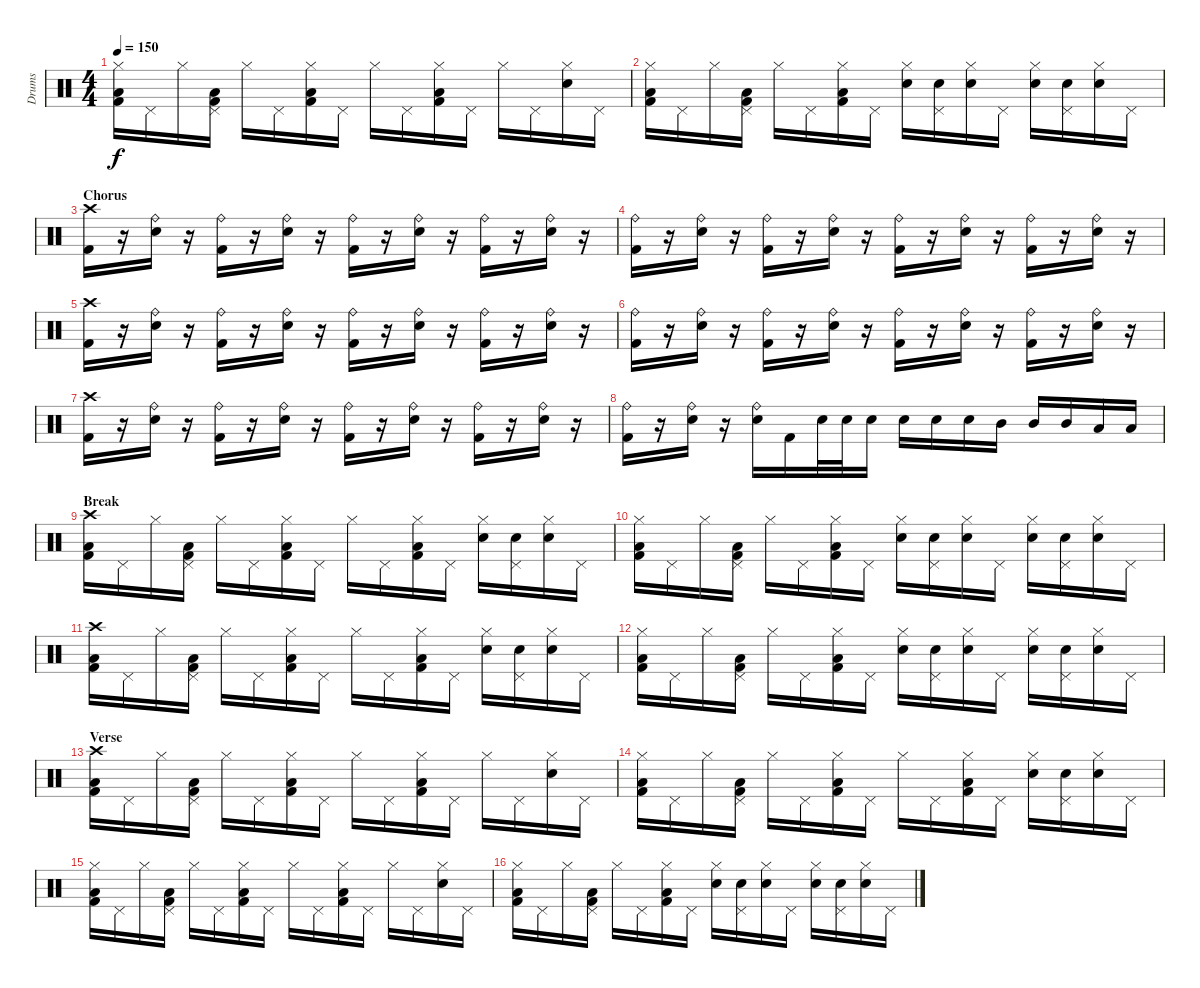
\track ("Drums" "Drums") {instrument percussion}
\staff {score}
\articulation defaults
\ts (4 4)
\tempo 150
\clef neutral
\ks c
("Hi-Hat (closed)" "Low Floor Tom (hit)" "Kick (hit) 2").16{dy f} "Pedal Hi-Hat (hit)".16 "Hi-Hat (closed)".16 ("Pedal Hi-Hat (hit)" "Low Floor Tom (hit)" "Kick (hit) 2").16 "Hi-Hat (closed)".16 "Pedal Hi-Hat (hit)".16 ("Hi-Hat (closed)" "Low Floor Tom (hit)" "Kick (hit) 2").16 "Pedal Hi-Hat (hit)".16 "Hi-Hat (closed)".16 "Pedal Hi-Hat (hit)".16 ("Hi-Hat (closed)" "Low Floor Tom (hit)" "Kick (hit) 2").16 "Pedal Hi-Hat (hit)".16 "Hi-Hat (closed)".16 "Pedal Hi-Hat (hit)".16 ("Hi-Hat (closed)" "Electric Snare (hit)").16 "Pedal Hi-Hat (hit)".16 |
("Hi-Hat (closed)" "Low Floor Tom (hit)" "Kick (hit) 2").16 "Pedal Hi-Hat (hit)".16 "Hi-Hat (closed)".16 ("Pedal Hi-Hat (hit)" "Low Floor Tom (hit)" "Kick (hit) 2").16 "Hi-Hat (closed)".16 "Pedal Hi-Hat (hit)".16 ("Hi-Hat (closed)" "Low Floor Tom (hit)" "Kick (hit) 2").16 "Pedal Hi-Hat (hit)".16 ("Hi-Hat (closed)" "Electric Snare (hit)").16 ("Pedal Hi-Hat (hit)" "Electric Snare (hit)").16 ("Hi-Hat (closed)" "Electric Snare (hit)").16 "Pedal Hi-Hat (hit)".16 ("Hi-Hat (closed)" "Electric Snare (hit)").16 ("Pedal Hi-Hat (hit)" "Electric Snare (hit)").16 ("Hi-Hat (closed)" "Electric Snare (hit)").16 "Pedal Hi-Hat (hit)".16 |
\section ("" "Chorus")
("Crash high (hit)" "Kick (hit) 2").16 r.16 ("Ride (bell)" "Electric Snare (hit)").16 r.16 ("Ride (bell)" "Kick (hit) 2").16 r.16 ("Ride (bell)" "Electric Snare (hit)").16 r.16 ("Ride (bell)" "Kick (hit) 2").16 r.16 ("Ride (bell)" "Electric Snare (hit)").16 r.16 ("Ride (bell)" "Kick (hit) 2").16 r.16 ("Ride (bell)" "Electric Snare (hit)").16 r.16 |
("Ride (bell)" "Kick (hit) 2").16 r.16 ("Ride (bell)" "Electric Snare (hit)").16 r.16 ("Ride (bell)" "Kick (hit) 2").16 r.16 ("Ride (bell)" "Electric Snare (hit)").16 r.16 ("Ride (bell)" "Kick (hit) 2").16 r.16 ("Ride (bell)" "Electric Snare (hit)").16 r.16 ("Ride (bell)" "Kick (hit) 2").16 r.16 ("Ride (bell)" "Electric Snare (hit)").16 r.16 |
("Crash high (hit)" "Kick (hit) 2").16 r.16 ("Ride (bell)" "Electric Snare (hit)").16 r.16 ("Ride (bell)" "Kick (hit) 2").16 r.16 ("Ride (bell)" "Electric Snare (hit)").16 r.16 ("Ride (bell)" "Kick (hit) 2").16 r.16 ("Ride (bell)" "Electric Snare (hit)").16 r.16 ("Ride (bell)" "Kick (hit) 2").16 r.16 ("Ride (bell)" "Electric Snare (hit)").16 r.16 |
("Ride (bell)" "Kick (hit) 2").16 r.16 ("Ride (bell)" "Electric Snare (hit)").16 r.16 ("Ride (bell)" "Kick (hit) 2").16 r.16 ("Ride (bell)" "Electric Snare (hit)").16 r.16 ("Ride (bell)" "Kick (hit) 2").16 r.16 ("Ride (bell)" "Electric Snare (hit)").16 r.16 ("Ride (bell)" "Kick (hit) 2").16 r.16 ("Ride (bell)" "Electric Snare (hit)").16 r.16 |
("Crash high (hit)" "Kick (hit) 2").16 r.16 ("Ride (bell)" "Electric Snare (hit)").16 r.16 ("Ride (bell)" "Kick (hit) 2").16 r.16 ("Ride (bell)" "Electric Snare (hit)").16 r.16 ("Ride (bell)" "Kick (hit) 2").16 r.16 ("Ride (bell)" "Electric Snare (hit)").16 r.16 ("Ride (bell)" "Kick (hit) 2").16 r.16 ("Ride (bell)" "Electric Snare (hit)").16 r.16 |
("Ride (bell)" "Kick (hit) 2").16 r.16 ("Ride (bell)" "Electric Snare (hit)").16 r.16 ("Ride (bell)" "Electric Snare (hit)").16 "Kick (hit) 2".16 "Electric Snare (hit)".32 "Electric Snare (hit)".32 "Electric Snare (hit)".16 "Electric Snare (hit)".16 "Electric Snare (hit)".16 "Electric Snare (hit)".16 "Mid Tom (hit)".16 "Mid Tom (hit)".16 "Mid Tom (hit)".16 "Low Tom (hit)".16 "Low Tom (hit)".16 |
\section ("" "Break")
("Crash high (hit)" "Low Floor Tom (hit)" "Kick (hit) 2").16 "Pedal Hi-Hat (hit)".16 "Hi-Hat (closed)".16 ("Pedal Hi-Hat (hit)" "Low Floor Tom (hit)" "Kick (hit) 2").16 "Hi-Hat (closed)".16 "Pedal Hi-Hat (hit)".16 ("Hi-Hat (closed)" "Low Floor Tom (hit)" "Kick (hit) 2").16 "Pedal Hi-Hat (hit)".16 "Hi-Hat (closed)".16 "Pedal Hi-Hat (hit)".16 ("Hi-Hat (closed)" "Low Floor Tom (hit)" "Kick (hit) 2").16 "Pedal Hi-Hat (hit)".16 ("Hi-Hat (closed)" "Electric Snare (hit)").16 ("Pedal Hi-Hat (hit)" "Electric Snare (hit)").16 ("Hi-Hat (closed)" "Electric Snare (hit)").16 "Pedal Hi-Hat (hit)".16 |
("Hi-Hat (closed)" "Low Floor Tom (hit)" "Kick (hit) 2").16 "Pedal Hi-Hat (hit)".16 "Hi-Hat (closed)".16 ("Pedal Hi-Hat (hit)" "Low Floor Tom (hit)" "Kick (hit) 2").16 "Hi-Hat (closed)".16 "Pedal Hi-Hat (hit)".16 ("Hi-Hat (closed)" "Low Floor Tom (hit)" "Kick (hit) 2").16 "Pedal Hi-Hat (hit)".16 ("Hi-Hat (closed)" "Electric Snare (hit)").16 ("Pedal Hi-Hat (hit)" "Electric Snare (hit)").16 ("Hi-Hat (closed)" "Electric Snare (hit)").16 "Pedal Hi-Hat (hit)".16 ("Hi-Hat (closed)" "Electric Snare (hit)").16 ("Pedal Hi-Hat (hit)" "Electric Snare (hit)").16 ("Hi-Hat (closed)" "Electric Snare (hit)").16 "Pedal Hi-Hat (hit)".16 |
("Crash high (hit)" "Low Floor Tom (hit)" "Kick (hit) 2").16 "Pedal Hi-Hat (hit)".16 "Hi-Hat (closed)".16 ("Pedal Hi-Hat (hit)" "Low Floor Tom (hit)" "Kick (hit) 2").16 "Hi-Hat (closed)".16 "Pedal Hi-Hat (hit)".16 ("Hi-Hat (closed)" "Low Floor Tom (hit)" "Kick (hit) 2").16 "Pedal Hi-Hat (hit)".16 "Hi-Hat (closed)".16 "Pedal Hi-Hat (hit)".16 ("Hi-Hat (closed)" "Low Floor Tom (hit)" "Kick (hit) 2").16 "Pedal Hi-Hat (hit)".16 ("Hi-Hat (closed)" "Electric Snare (hit)").16 ("Pedal Hi-Hat (hit)" "Electric Snare (hit)").16 ("Hi-Hat (closed)" "Electric Snare (hit)").16 "Pedal Hi-Hat (hit)".16 |
("Hi-Hat (closed)" "Low Floor Tom (hit)" "Kick (hit) 2").16 "Pedal Hi-Hat (hit)".16 "Hi-Hat (closed)".16 ("Pedal Hi-Hat (hit)" "Low Floor Tom (hit)" "Kick (hit) 2").16 "Hi-Hat (closed)".16 "Pedal Hi-Hat (hit)".16 ("Hi-Hat (closed)" "Low Floor Tom (hit)" "Kick (hit) 2").16 "Pedal Hi-Hat (hit)".16 ("Hi-Hat (closed)" "Electric Snare (hit)").16 ("Pedal Hi-Hat (hit)" "Electric Snare (hit)").16 ("Hi-Hat (closed)" "Electric Snare (hit)").16 "Pedal Hi-Hat (hit)".16 ("Hi-Hat (closed)" "Electric Snare (hit)").16 ("Pedal Hi-Hat (hit)" "Electric Snare (hit)").16 ("Hi-Hat (closed)" "Electric Snare (hit)").16 "Pedal Hi-Hat (hit)".16 |
\section ("" "Verse")
("Crash high (hit)" "Low Floor Tom (hit)" "Kick (hit) 2").16 "Pedal Hi-Hat (hit)".16 "Hi-Hat (closed)".16 ("Pedal Hi-Hat (hit)" "Low Floor Tom (hit)" "Kick (hit) 2").16 "Hi-Hat (closed)".16 "Pedal Hi-Hat (hit)".16 ("Hi-Hat (closed)" "Low Floor Tom (hit)" "Kick (hit) 2").16 "Pedal Hi-Hat (hit)".16 "Hi-Hat (closed)".16 "Pedal Hi-Hat (hit)".16 ("Hi-Hat (closed)" "Low Floor Tom (hit)" "Kick (hit) 2").16 "Pedal Hi-Hat (hit)".16 "Hi-Hat (closed)".16 "Pedal Hi-Hat (hit)".16 ("Hi-Hat (closed)" "Electric Snare (hit)").16 "Pedal Hi-Hat (hit)".16 |
("Hi-Hat (closed)" "Low Floor Tom (hit)" "Kick (hit) 2").16 "Pedal Hi-Hat (hit)".16 "Hi-Hat (closed)".16 ("Pedal Hi-Hat (hit)" "Low Floor Tom (hit)" "Kick (hit) 2").16 "Hi-Hat (closed)".16 "Pedal Hi-Hat (hit)".16 ("Hi-Hat (closed)" "Low Floor Tom (hit)" "Kick (hit) 2").16 "Pedal Hi-Hat (hit)".16 "Hi-Hat (closed)".16 "Pedal Hi-Hat (hit)".16 ("Hi-Hat (closed)" "Low Floor Tom (hit)" "Kick (hit) 2").16 "Pedal Hi-Hat (hit)".16 ("Hi-Hat (closed)" "Electric Snare (hit)").16 ("Pedal Hi-Hat (hit)" "Electric Snare (hit)").16 ("Hi-Hat (closed)" "Electric Snare (hit)").16 "Pedal Hi-Hat (hit)".16 |
("Hi-Hat (closed)" "Low Floor Tom (hit)" "Kick (hit) 2").16 "Pedal Hi-Hat (hit)".16 "Hi-Hat (closed)".16 ("Pedal Hi-Hat (hit)" "Low Floor Tom (hit)" "Kick (hit) 2").16 "Hi-Hat (closed)".16 "Pedal Hi-Hat (hit)".16 ("Hi-Hat (closed)" "Low Floor Tom (hit)" "Kick (hit) 2").16 "Pedal Hi-Hat (hit)".16 "Hi-Hat (closed)".16 "Pedal Hi-Hat (hit)".16 ("Hi-Hat (closed)" "Low Floor Tom (hit)" "Kick (hit) 2").16 "Pedal Hi-Hat (hit)".16 "Hi-Hat (closed)".16 "Pedal Hi-Hat (hit)".16 ("Hi-Hat (closed)" "Electric Snare (hit)").16 "Pedal Hi-Hat (hit)".16 |
("Hi-Hat (closed)" "Low Floor Tom (hit)" "Kick (hit) 2").16 "Pedal Hi-Hat (hit)".16 "Hi-Hat (closed)".16 ("Pedal Hi-Hat (hit)" "Low Floor Tom (hit)" "Kick (hit) 2").16 "Hi-Hat (closed)".16 "Pedal Hi-Hat (hit)".16 ("Hi-Hat (closed)" "Low Floor Tom (hit)" "Kick (hit) 2").16 "Pedal Hi-Hat (hit)".16 ("Hi-Hat (closed)" "Electric Snare (hit)").16 ("Pedal Hi-Hat (hit)" "Electric Snare (hit)").16 ("Hi-Hat (closed)" "Electric Snare (hit)").16 "Pedal Hi-Hat (hit)".16 ("Hi-Hat (closed)" "Electric Snare (hit)").16 ("Pedal Hi-Hat (hit)" "Electric Snare (hit)").16 ("Hi-Hat (closed)" "Electric Snare (hit)").16 "Pedal Hi-Hat (hit)".16
